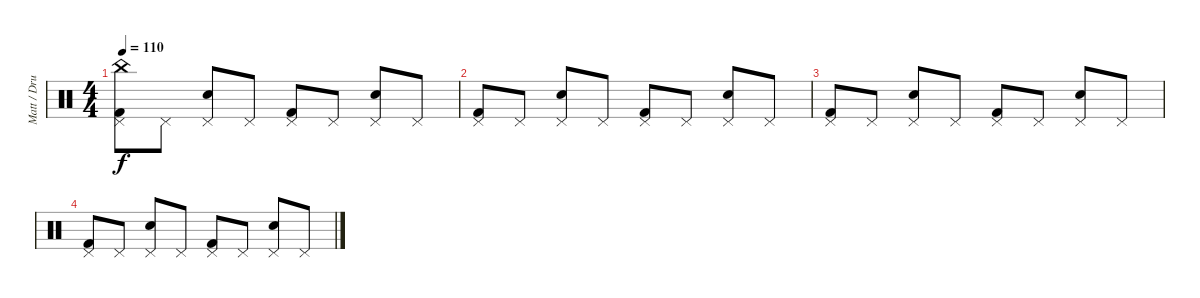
\track ("Matt / Drums" "Matt / Dru") {instrument percussion}
\staff {score}
\articulation defaults
\ts (4 4)
\tempo 110
\clef neutral
\ks c
("China (hit)" "Pedal Hi-Hat (hit)" "Kick (hit) 2").8{dy f} "Pedal Hi-Hat (hit)".8 ("Pedal Hi-Hat (hit)" "Snare (hit) 2").8 "Pedal Hi-Hat (hit)".8 ("Pedal Hi-Hat (hit)" "Kick (hit) 2").8 "Pedal Hi-Hat (hit)".8 ("Pedal Hi-Hat (hit)" "Snare (hit) 2").8 "Pedal Hi-Hat (hit)".8 |
("Pedal Hi-Hat (hit)" "Kick (hit) 2").8 "Pedal Hi-Hat (hit)".8 ("Pedal Hi-Hat (hit)" "Snare (hit) 2").8 "Pedal Hi-Hat (hit)".8 ("Pedal Hi-Hat (hit)" "Kick (hit) 2").8 "Pedal Hi-Hat (hit)".8 ("Pedal Hi-Hat (hit)" "Snare (hit) 2").8 "Pedal Hi-Hat (hit)".8 |
("Pedal Hi-Hat (hit)" "Kick (hit) 2").8 "Pedal Hi-Hat (hit)".8 ("Pedal Hi-Hat (hit)" "Snare (hit) 2").8 "Pedal Hi-Hat (hit)".8 ("Pedal Hi-Hat (hit)" "Kick (hit) 2").8 "Pedal Hi-Hat (hit)".8 ("Pedal Hi-Hat (hit)" "Snare (hit) 2").8 "Pedal Hi-Hat (hit)".8 |
("Pedal Hi-Hat (hit)" "Kick (hit) 2").8 "Pedal Hi-Hat (hit)".8 ("Pedal Hi-Hat (hit)" "Snare (hit) 2").8 "Pedal Hi-Hat (hit)".8 ("Pedal Hi-Hat (hit)" "Kick (hit) 2").8 "Pedal Hi-Hat (hit)".8 ("Pedal Hi-Hat (hit)" "Snare (hit) 2").8 "Pedal Hi-Hat (hit)".8
